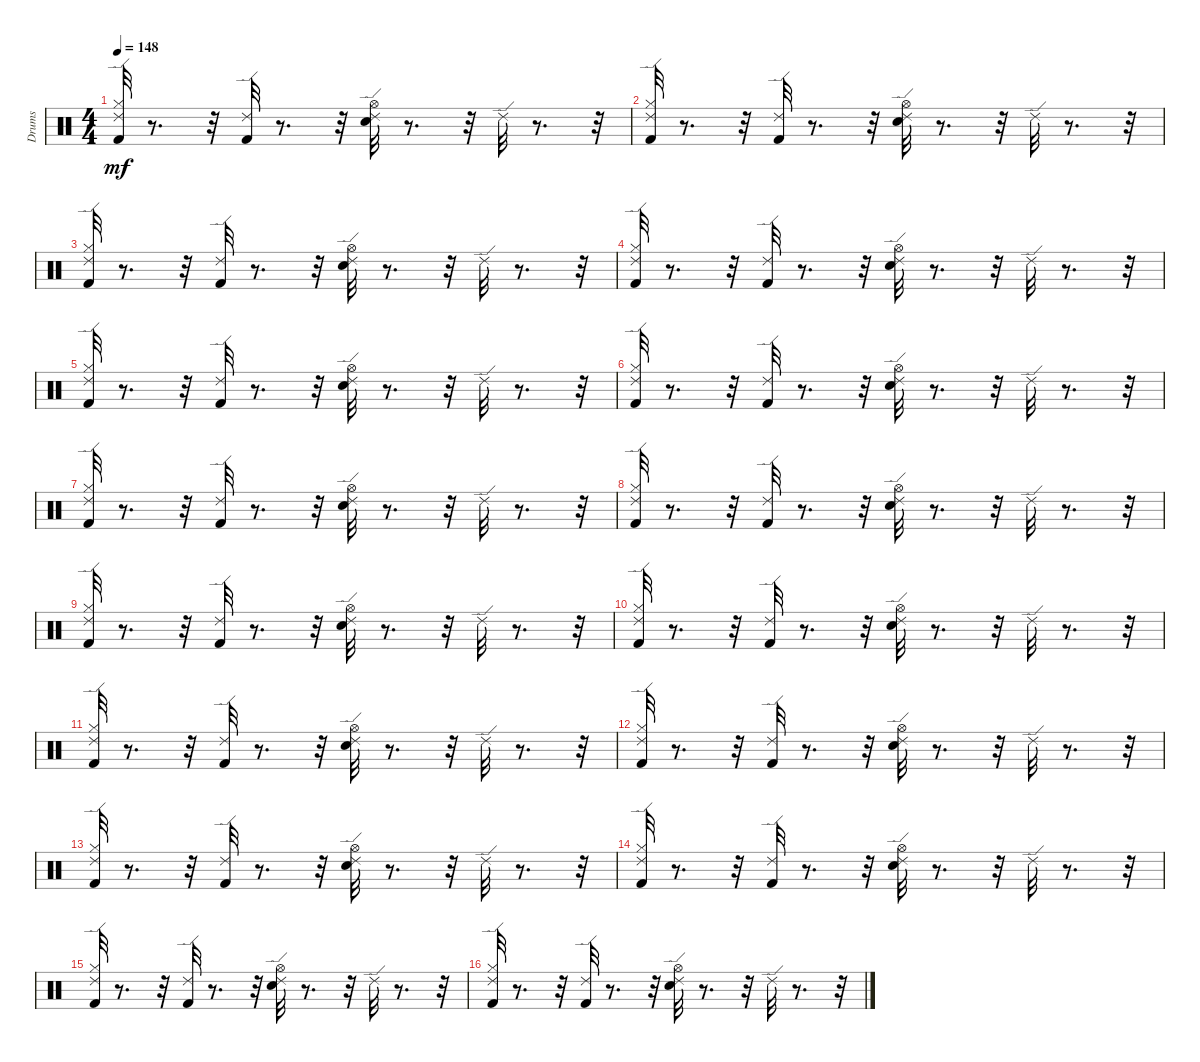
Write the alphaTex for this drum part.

\track ("Drums" "Drums") {instrument percussion}
\staff {score}
\articulation defaults
\ts (4 4)
\tempo 148
\clef neutral
\ks c
("Ride (edge) 2" "Hi-Hat (closed)" "Kick (hit) 2").32{dy mf} r.8{d} r.32 ("Ride (edge) 2" "Kick (hit) 2").32 r.8{d} r.32 ("Ride (edge) 2" "Hi-Hat (open)" "Electric Snare (hit)").32 r.8{d} r.32 "Ride (edge) 2".32 r.8{d} r.32 |
("Ride (edge) 2" "Kick (hit) 2" "Hi-Hat (closed)").32 r.8{d} r.32 ("Ride (edge) 2" "Kick (hit) 2").32 r.8{d} r.32 ("Hi-Hat (open)" "Ride (edge) 2" "Electric Snare (hit)").32 r.8{d} r.32 "Ride (edge) 2".32 r.8{d} r.32 |
("Ride (edge) 2" "Hi-Hat (closed)" "Kick (hit) 2").32 r.8{d} r.32 ("Ride (edge) 2" "Kick (hit) 2").32 r.8{d} r.32 ("Ride (edge) 2" "Hi-Hat (open)" "Electric Snare (hit)").32 r.8{d} r.32 "Ride (edge) 2".32 r.8{d} r.32 |
("Ride (edge) 2" "Kick (hit) 2" "Hi-Hat (closed)").32 r.8{d} r.32 ("Ride (edge) 2" "Kick (hit) 2").32 r.8{d} r.32 ("Hi-Hat (open)" "Ride (edge) 2" "Electric Snare (hit)").32 r.8{d} r.32 "Ride (edge) 2".32 r.8{d} r.32 |
("Ride (edge) 2" "Hi-Hat (closed)" "Kick (hit) 2").32 r.8{d} r.32 ("Ride (edge) 2" "Kick (hit) 2").32 r.8{d} r.32 ("Ride (edge) 2" "Hi-Hat (open)" "Electric Snare (hit)").32 r.8{d} r.32 "Ride (edge) 2".32 r.8{d} r.32 |
("Ride (edge) 2" "Kick (hit) 2" "Hi-Hat (closed)").32 r.8{d} r.32 ("Ride (edge) 2" "Kick (hit) 2").32 r.8{d} r.32 ("Hi-Hat (open)" "Ride (edge) 2" "Electric Snare (hit)").32 r.8{d} r.32 "Ride (edge) 2".32 r.8{d} r.32 |
("Ride (edge) 2" "Hi-Hat (closed)" "Kick (hit) 2").32 r.8{d} r.32 ("Ride (edge) 2" "Kick (hit) 2").32 r.8{d} r.32 ("Ride (edge) 2" "Hi-Hat (open)" "Electric Snare (hit)").32 r.8{d} r.32 "Ride (edge) 2".32 r.8{d} r.32 |
("Ride (edge) 2" "Kick (hit) 2" "Hi-Hat (closed)").32 r.8{d} r.32 ("Ride (edge) 2" "Kick (hit) 2").32 r.8{d} r.32 ("Hi-Hat (open)" "Ride (edge) 2" "Electric Snare (hit)").32 r.8{d} r.32 "Ride (edge) 2".32 r.8{d} r.32 |
("Ride (edge) 2" "Hi-Hat (closed)" "Kick (hit) 2").32 r.8{d} r.32 ("Ride (edge) 2" "Kick (hit) 2").32 r.8{d} r.32 ("Ride (edge) 2" "Hi-Hat (open)" "Electric Snare (hit)").32 r.8{d} r.32 "Ride (edge) 2".32 r.8{d} r.32 |
("Ride (edge) 2" "Kick (hit) 2" "Hi-Hat (closed)").32 r.8{d} r.32 ("Ride (edge) 2" "Kick (hit) 2").32 r.8{d} r.32 ("Hi-Hat (open)" "Ride (edge) 2" "Electric Snare (hit)").32 r.8{d} r.32 "Ride (edge) 2".32 r.8{d} r.32 |
("Ride (edge) 2" "Hi-Hat (closed)" "Kick (hit) 2").32 r.8{d} r.32 ("Ride (edge) 2" "Kick (hit) 2").32 r.8{d} r.32 ("Ride (edge) 2" "Hi-Hat (open)" "Electric Snare (hit)").32 r.8{d} r.32 "Ride (edge) 2".32 r.8{d} r.32 |
("Ride (edge) 2" "Kick (hit) 2" "Hi-Hat (closed)").32 r.8{d} r.32 ("Ride (edge) 2" "Kick (hit) 2").32 r.8{d} r.32 ("Hi-Hat (open)" "Ride (edge) 2" "Electric Snare (hit)").32 r.8{d} r.32 "Ride (edge) 2".32 r.8{d} r.32 |
("Ride (edge) 2" "Hi-Hat (closed)" "Kick (hit) 2").32 r.8{d} r.32 ("Ride (edge) 2" "Kick (hit) 2").32 r.8{d} r.32 ("Ride (edge) 2" "Hi-Hat (open)" "Electric Snare (hit)").32 r.8{d} r.32 "Ride (edge) 2".32 r.8{d} r.32 |
("Ride (edge) 2" "Kick (hit) 2" "Hi-Hat (closed)").32 r.8{d} r.32 ("Ride (edge) 2" "Kick (hit) 2").32 r.8{d} r.32 ("Hi-Hat (open)" "Ride (edge) 2" "Electric Snare (hit)").32 r.8{d} r.32 "Ride (edge) 2".32 r.8{d} r.32 |
("Ride (edge) 2" "Hi-Hat (closed)" "Kick (hit) 2").32 r.8{d} r.32 ("Ride (edge) 2" "Kick (hit) 2").32 r.8{d} r.32 ("Ride (edge) 2" "Hi-Hat (open)" "Electric Snare (hit)").32 r.8{d} r.32 "Ride (edge) 2".32 r.8{d} r.32 |
("Ride (edge) 2" "Kick (hit) 2" "Hi-Hat (closed)").32 r.8{d} r.32 ("Ride (edge) 2" "Kick (hit) 2").32 r.8{d} r.32 ("Hi-Hat (open)" "Ride (edge) 2" "Electric Snare (hit)").32 r.8{d} r.32 "Ride (edge) 2".32 r.8{d} r.32
